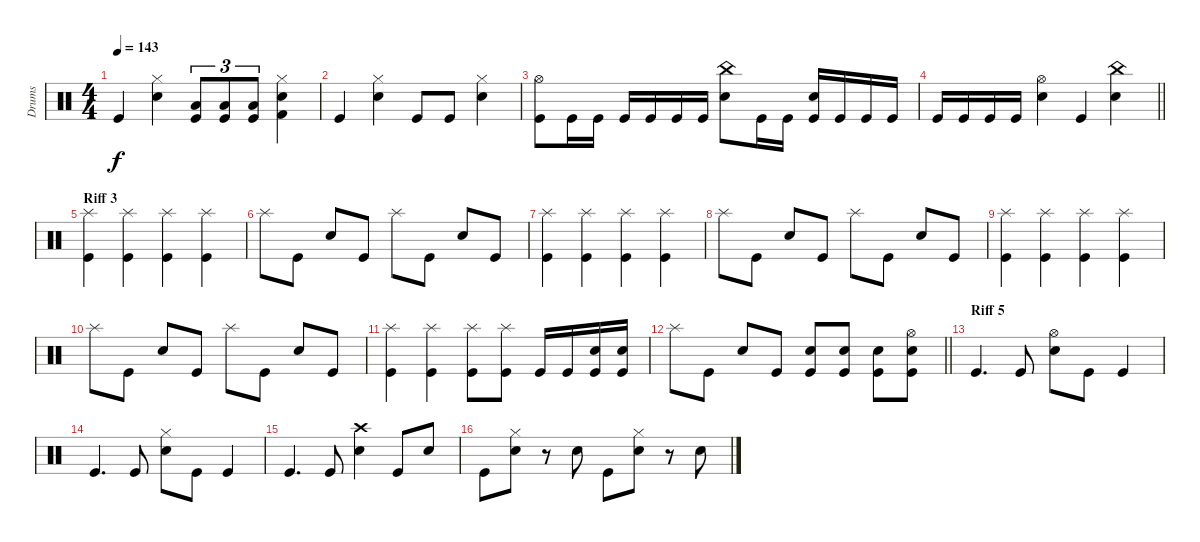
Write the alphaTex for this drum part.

\track ("Drums" "Drums") {instrument percussion}
\staff {score}
\articulation defaults
\ts (4 4)
\tempo 143
\clef neutral
\ks c "Kick (hit)".4{dy f}
("Hi-Hat (closed)" "Snare (hit) 2").4 ("Low Floor Tom (hit)" "Kick (hit)").8{tu (3 2)} ("Low Floor Tom (hit)" "Kick (hit)").8{tu (3 2)} ("Low Floor Tom (hit)" "Kick (hit)").8{tu (3 2)} ("Hi-Hat (closed)" "Snare (hit) 2" "Kick (hit) 2").4 |
"Kick (hit)".4 ("Hi-Hat (closed)" "Snare (hit) 2").4 "Kick (hit)".8 "Kick (hit)".8 ("Hi-Hat (closed)" "Snare (hit) 2").4 |
("Hi-Hat (open)" "Kick (hit)").8 "Kick (hit)".16 "Kick (hit)".16 "Kick (hit)".16 "Kick (hit)".16 "Kick (hit)".16 "Kick (hit)".16 ("China (hit)" "Snare (hit) 2").8 "Kick (hit)".16 "Kick (hit)".16 ("Snare (hit) 2" "Kick (hit)").16 "Kick (hit)".16 "Kick (hit)".16 "Kick (hit)".16 |
\barLineRight lightlight "Kick (hit)".16 "Kick (hit)".16 "Kick (hit)".16 "Kick (hit)".16
("Hi-Hat (open)" "Snare (hit) 2").4 "Kick (hit)".4 ("China (hit)" "Snare (hit) 2").4 |
\section ("" "Riff 3")
("Splash (hit)" "Kick (hit)").4 ("Splash (hit)" "Kick (hit)").4 ("Splash (hit)" "Kick (hit)").4 ("Splash (hit)" "Kick (hit)").4 |
"Splash (hit)".8 "Kick (hit)".8 "Snare (hit) 2".8 "Kick (hit)".8 "Splash (hit)".8 "Kick (hit)".8 "Snare (hit) 2".8 "Kick (hit)".8 |
("Splash (hit)" "Kick (hit)").4 ("Splash (hit)" "Kick (hit)").4 ("Splash (hit)" "Kick (hit)").4 ("Splash (hit)" "Kick (hit)").4 |
"Splash (hit)".8 "Kick (hit)".8 "Snare (hit) 2".8 "Kick (hit)".8 "Splash (hit)".8 "Kick (hit)".8 "Snare (hit) 2".8 "Kick (hit)".8 |
("Splash (hit)" "Kick (hit)").4 ("Splash (hit)" "Kick (hit)").4 ("Splash (hit)" "Kick (hit)").4 ("Splash (hit)" "Kick (hit)").4 |
"Splash (hit)".8 "Kick (hit)".8 "Snare (hit) 2".8 "Kick (hit)".8 "Splash (hit)".8 "Kick (hit)".8 "Snare (hit) 2".8 "Kick (hit)".8 |
("Splash (hit)" "Kick (hit)").4 ("Splash (hit)" "Kick (hit)").4 ("Splash (hit)" "Kick (hit)").8 ("Splash (hit)" "Kick (hit)").8 "Kick (hit)".16 "Kick (hit)".16 ("Snare (hit) 2" "Kick (hit)").16 ("Snare (hit) 2" "Kick (hit)").16 |
\barLineRight lightlight "Splash (hit)".8 "Kick (hit)".8 "Snare (hit) 2".8 "Kick (hit)".8
("Snare (hit) 2" "Kick (hit)").8 ("Snare (hit) 2" "Kick (hit)").8 ("Snare (hit) 2" "Kick (hit)").8 ("Hi-Hat (open)" "Snare (hit) 2" "Kick (hit)").8 |
\section ("" "Riff 5")
"Kick (hit)".4{d} "Kick (hit)".8 ("Hi-Hat (open)" "Snare (hit) 2").8 "Kick (hit)".8 "Kick (hit)".4 |
"Kick (hit)".4{d} "Kick (hit)".8 ("Hi-Hat (closed)" "Snare (hit) 2").8 "Kick (hit)".8 "Kick (hit)".4 |
"Kick (hit)".4{d} "Kick (hit)".8 ("Crash high (hit)" "Snare (hit) 2").4 "Kick (hit)".8 "Snare (hit) 2".8 |
"Kick (hit)".8 ("Hi-Hat (closed)" "Snare (hit) 2").8 r.8 "Snare (hit) 2".8 "Kick (hit)".8 ("Hi-Hat (closed)" "Snare (hit) 2").8 r.8 "Snare (hit) 2".8
